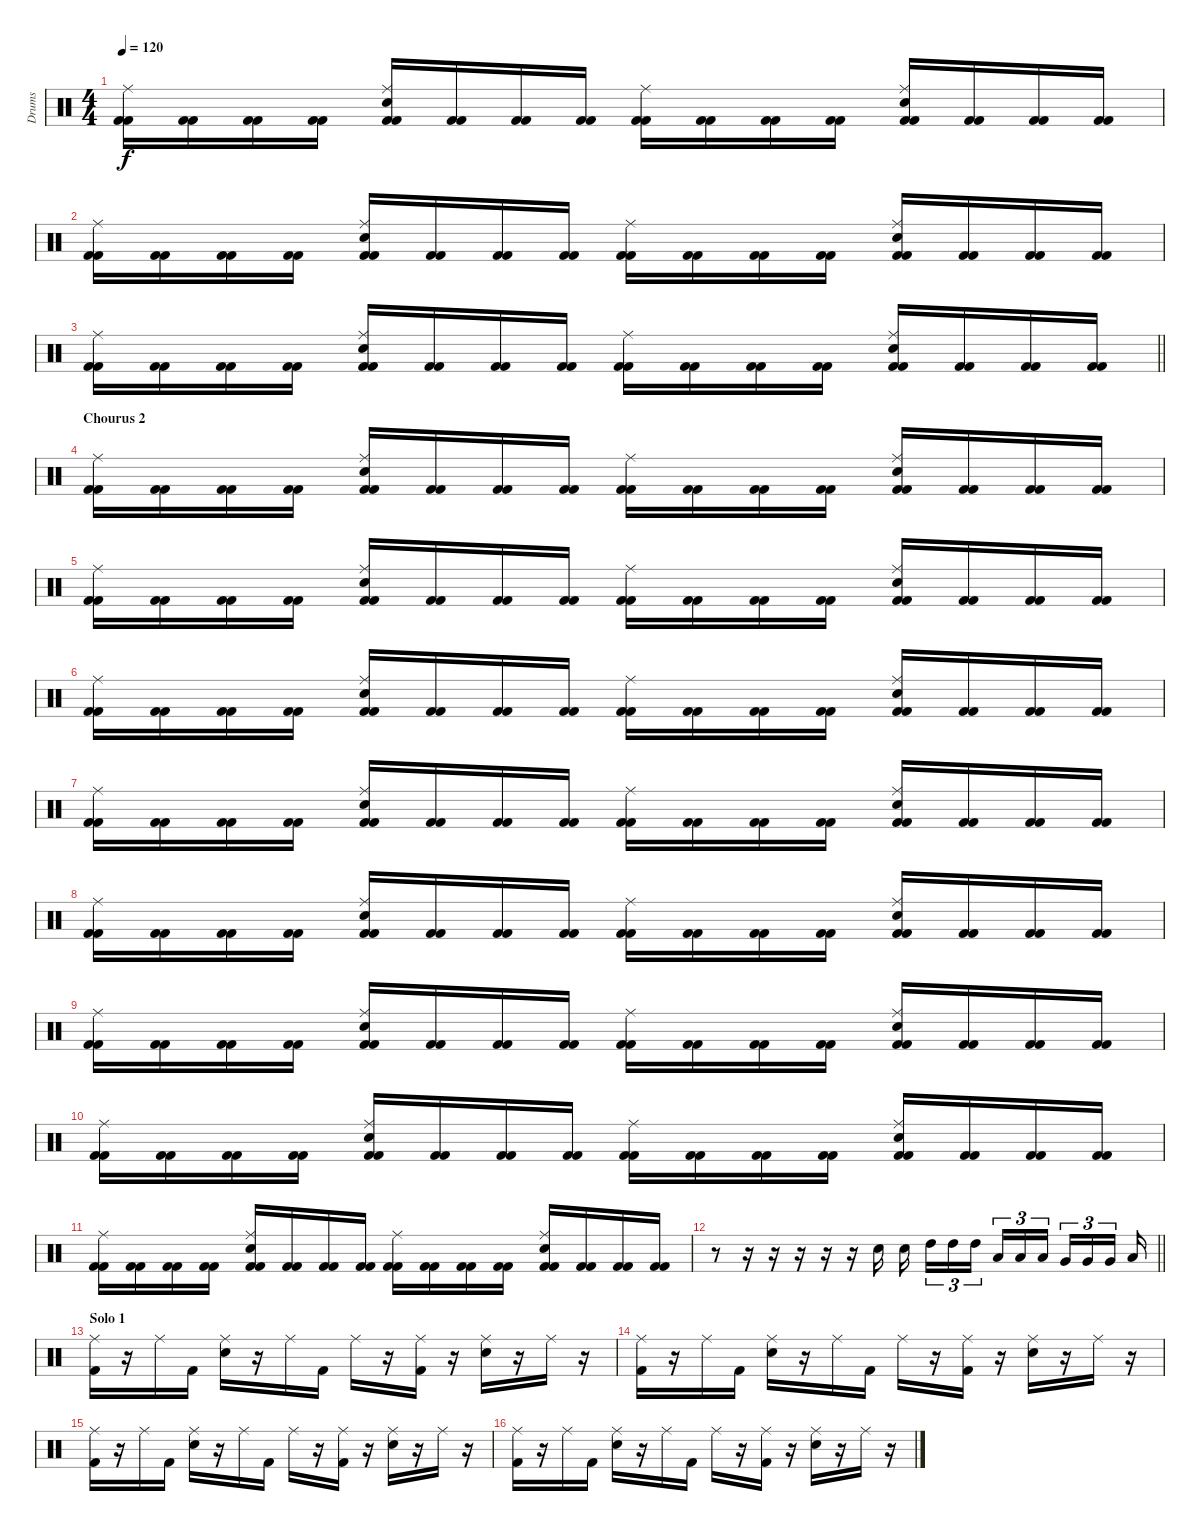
\track ("Drums" "Drums") {instrument percussion}
\staff {score}
\articulation defaults
\ts (4 4)
\tempo 120
\clef neutral
\ks c
("Kick (hit) 2" "Ride (middle)" "Kick (hit) 2").16{dy f} ("Kick (hit) 2" "Kick (hit) 2").16 ("Kick (hit) 2" "Kick (hit) 2").16 ("Kick (hit) 2" "Kick (hit) 2").16 ("Kick (hit) 2" "Ride (middle)" "Electric Snare (hit)" "Kick (hit) 2").16 ("Kick (hit) 2" "Kick (hit) 2").16 ("Kick (hit) 2" "Kick (hit) 2").16 ("Kick (hit) 2" "Kick (hit) 2").16 ("Kick (hit) 2" "Ride (middle)" "Kick (hit) 2").16 ("Kick (hit) 2" "Kick (hit) 2").16 ("Kick (hit) 2" "Kick (hit) 2").16 ("Kick (hit) 2" "Kick (hit) 2").16 ("Kick (hit) 2" "Ride (middle)" "Electric Snare (hit)" "Kick (hit) 2").16 ("Kick (hit) 2" "Kick (hit) 2").16 ("Kick (hit) 2" "Kick (hit) 2").16 ("Kick (hit) 2" "Kick (hit) 2").16 |
("Kick (hit) 2" "Ride (middle)" "Kick (hit) 2").16 ("Kick (hit) 2" "Kick (hit) 2").16 ("Kick (hit) 2" "Kick (hit) 2").16 ("Kick (hit) 2" "Kick (hit) 2").16 ("Kick (hit) 2" "Ride (middle)" "Electric Snare (hit)" "Kick (hit) 2").16 ("Kick (hit) 2" "Kick (hit) 2").16 ("Kick (hit) 2" "Kick (hit) 2").16 ("Kick (hit) 2" "Kick (hit) 2").16 ("Kick (hit) 2" "Ride (middle)" "Kick (hit) 2").16 ("Kick (hit) 2" "Kick (hit) 2").16 ("Kick (hit) 2" "Kick (hit) 2").16 ("Kick (hit) 2" "Kick (hit) 2").16 ("Kick (hit) 2" "Ride (middle)" "Electric Snare (hit)" "Kick (hit) 2").16 ("Kick (hit) 2" "Kick (hit) 2").16 ("Kick (hit) 2" "Kick (hit) 2").16 ("Kick (hit) 2" "Kick (hit) 2").16 |
\barLineRight lightlight
("Kick (hit) 2" "Ride (middle)" "Kick (hit) 2").16 ("Kick (hit) 2" "Kick (hit) 2").16 ("Kick (hit) 2" "Kick (hit) 2").16 ("Kick (hit) 2" "Kick (hit) 2").16 ("Kick (hit) 2" "Ride (middle)" "Electric Snare (hit)" "Kick (hit) 2").16 ("Kick (hit) 2" "Kick (hit) 2").16 ("Kick (hit) 2" "Kick (hit) 2").16 ("Kick (hit) 2" "Kick (hit) 2").16 ("Kick (hit) 2" "Ride (middle)" "Kick (hit) 2").16 ("Kick (hit) 2" "Kick (hit) 2").16 ("Kick (hit) 2" "Kick (hit) 2").16 ("Kick (hit) 2" "Kick (hit) 2").16 ("Kick (hit) 2" "Ride (middle)" "Electric Snare (hit)" "Kick (hit) 2").16 ("Kick (hit) 2" "Kick (hit) 2").16 ("Kick (hit) 2" "Kick (hit) 2").16 ("Kick (hit) 2" "Kick (hit) 2").16 |
\section ("" "Chourus 2")
("Kick (hit) 2" "Ride (middle)" "Kick (hit) 2").16 ("Kick (hit) 2" "Kick (hit) 2").16 ("Kick (hit) 2" "Kick (hit) 2").16 ("Kick (hit) 2" "Kick (hit) 2").16 ("Kick (hit) 2" "Ride (middle)" "Electric Snare (hit)" "Kick (hit) 2").16 ("Kick (hit) 2" "Kick (hit) 2").16 ("Kick (hit) 2" "Kick (hit) 2").16 ("Kick (hit) 2" "Kick (hit) 2").16 ("Kick (hit) 2" "Ride (middle)" "Kick (hit) 2").16 ("Kick (hit) 2" "Kick (hit) 2").16 ("Kick (hit) 2" "Kick (hit) 2").16 ("Kick (hit) 2" "Kick (hit) 2").16 ("Kick (hit) 2" "Ride (middle)" "Electric Snare (hit)" "Kick (hit) 2").16 ("Kick (hit) 2" "Kick (hit) 2").16 ("Kick (hit) 2" "Kick (hit) 2").16 ("Kick (hit) 2" "Kick (hit) 2").16 |
("Kick (hit) 2" "Ride (middle)" "Kick (hit) 2").16 ("Kick (hit) 2" "Kick (hit) 2").16 ("Kick (hit) 2" "Kick (hit) 2").16 ("Kick (hit) 2" "Kick (hit) 2").16 ("Kick (hit) 2" "Ride (middle)" "Electric Snare (hit)" "Kick (hit) 2").16 ("Kick (hit) 2" "Kick (hit) 2").16 ("Kick (hit) 2" "Kick (hit) 2").16 ("Kick (hit) 2" "Kick (hit) 2").16 ("Kick (hit) 2" "Ride (middle)" "Kick (hit) 2").16 ("Kick (hit) 2" "Kick (hit) 2").16 ("Kick (hit) 2" "Kick (hit) 2").16 ("Kick (hit) 2" "Kick (hit) 2").16 ("Kick (hit) 2" "Ride (middle)" "Electric Snare (hit)" "Kick (hit) 2").16 ("Kick (hit) 2" "Kick (hit) 2").16 ("Kick (hit) 2" "Kick (hit) 2").16 ("Kick (hit) 2" "Kick (hit) 2").16 |
("Kick (hit) 2" "Ride (middle)" "Kick (hit) 2").16 ("Kick (hit) 2" "Kick (hit) 2").16 ("Kick (hit) 2" "Kick (hit) 2").16 ("Kick (hit) 2" "Kick (hit) 2").16 ("Kick (hit) 2" "Ride (middle)" "Electric Snare (hit)" "Kick (hit) 2").16 ("Kick (hit) 2" "Kick (hit) 2").16 ("Kick (hit) 2" "Kick (hit) 2").16 ("Kick (hit) 2" "Kick (hit) 2").16 ("Kick (hit) 2" "Ride (middle)" "Kick (hit) 2").16 ("Kick (hit) 2" "Kick (hit) 2").16 ("Kick (hit) 2" "Kick (hit) 2").16 ("Kick (hit) 2" "Kick (hit) 2").16 ("Kick (hit) 2" "Ride (middle)" "Electric Snare (hit)" "Kick (hit) 2").16 ("Kick (hit) 2" "Kick (hit) 2").16 ("Kick (hit) 2" "Kick (hit) 2").16 ("Kick (hit) 2" "Kick (hit) 2").16 |
("Kick (hit) 2" "Ride (middle)" "Kick (hit) 2").16 ("Kick (hit) 2" "Kick (hit) 2").16 ("Kick (hit) 2" "Kick (hit) 2").16 ("Kick (hit) 2" "Kick (hit) 2").16 ("Kick (hit) 2" "Ride (middle)" "Electric Snare (hit)" "Kick (hit) 2").16 ("Kick (hit) 2" "Kick (hit) 2").16 ("Kick (hit) 2" "Kick (hit) 2").16 ("Kick (hit) 2" "Kick (hit) 2").16 ("Kick (hit) 2" "Ride (middle)" "Kick (hit) 2").16 ("Kick (hit) 2" "Kick (hit) 2").16 ("Kick (hit) 2" "Kick (hit) 2").16 ("Kick (hit) 2" "Kick (hit) 2").16 ("Kick (hit) 2" "Ride (middle)" "Electric Snare (hit)" "Kick (hit) 2").16 ("Kick (hit) 2" "Kick (hit) 2").16 ("Kick (hit) 2" "Kick (hit) 2").16 ("Kick (hit) 2" "Kick (hit) 2").16 |
("Kick (hit) 2" "Ride (middle)" "Kick (hit) 2").16 ("Kick (hit) 2" "Kick (hit) 2").16 ("Kick (hit) 2" "Kick (hit) 2").16 ("Kick (hit) 2" "Kick (hit) 2").16 ("Kick (hit) 2" "Ride (middle)" "Electric Snare (hit)" "Kick (hit) 2").16 ("Kick (hit) 2" "Kick (hit) 2").16 ("Kick (hit) 2" "Kick (hit) 2").16 ("Kick (hit) 2" "Kick (hit) 2").16 ("Kick (hit) 2" "Ride (middle)" "Kick (hit) 2").16 ("Kick (hit) 2" "Kick (hit) 2").16 ("Kick (hit) 2" "Kick (hit) 2").16 ("Kick (hit) 2" "Kick (hit) 2").16 ("Kick (hit) 2" "Ride (middle)" "Electric Snare (hit)" "Kick (hit) 2").16 ("Kick (hit) 2" "Kick (hit) 2").16 ("Kick (hit) 2" "Kick (hit) 2").16 ("Kick (hit) 2" "Kick (hit) 2").16 |
("Kick (hit) 2" "Ride (middle)" "Kick (hit) 2").16 ("Kick (hit) 2" "Kick (hit) 2").16 ("Kick (hit) 2" "Kick (hit) 2").16 ("Kick (hit) 2" "Kick (hit) 2").16 ("Kick (hit) 2" "Ride (middle)" "Electric Snare (hit)" "Kick (hit) 2").16 ("Kick (hit) 2" "Kick (hit) 2").16 ("Kick (hit) 2" "Kick (hit) 2").16 ("Kick (hit) 2" "Kick (hit) 2").16 ("Kick (hit) 2" "Ride (middle)" "Kick (hit) 2").16 ("Kick (hit) 2" "Kick (hit) 2").16 ("Kick (hit) 2" "Kick (hit) 2").16 ("Kick (hit) 2" "Kick (hit) 2").16 ("Kick (hit) 2" "Ride (middle)" "Electric Snare (hit)" "Kick (hit) 2").16 ("Kick (hit) 2" "Kick (hit) 2").16 ("Kick (hit) 2" "Kick (hit) 2").16 ("Kick (hit) 2" "Kick (hit) 2").16 |
("Kick (hit) 2" "Ride (middle)" "Kick (hit) 2").16 ("Kick (hit) 2" "Kick (hit) 2").16 ("Kick (hit) 2" "Kick (hit) 2").16 ("Kick (hit) 2" "Kick (hit) 2").16 ("Kick (hit) 2" "Ride (middle)" "Electric Snare (hit)" "Kick (hit) 2").16 ("Kick (hit) 2" "Kick (hit) 2").16 ("Kick (hit) 2" "Kick (hit) 2").16 ("Kick (hit) 2" "Kick (hit) 2").16 ("Kick (hit) 2" "Ride (middle)" "Kick (hit) 2").16 ("Kick (hit) 2" "Kick (hit) 2").16 ("Kick (hit) 2" "Kick (hit) 2").16 ("Kick (hit) 2" "Kick (hit) 2").16 ("Kick (hit) 2" "Ride (middle)" "Electric Snare (hit)" "Kick (hit) 2").16 ("Kick (hit) 2" "Kick (hit) 2").16 ("Kick (hit) 2" "Kick (hit) 2").16 ("Kick (hit) 2" "Kick (hit) 2").16 |
("Kick (hit) 2" "Ride (middle)" "Kick (hit) 2").16 ("Kick (hit) 2" "Kick (hit) 2").16 ("Kick (hit) 2" "Kick (hit) 2").16 ("Kick (hit) 2" "Kick (hit) 2").16 ("Kick (hit) 2" "Ride (middle)" "Electric Snare (hit)" "Kick (hit) 2").16 ("Kick (hit) 2" "Kick (hit) 2").16 ("Kick (hit) 2" "Kick (hit) 2").16 ("Kick (hit) 2" "Kick (hit) 2").16 ("Kick (hit) 2" "Ride (middle)" "Kick (hit) 2").16 ("Kick (hit) 2" "Kick (hit) 2").16 ("Kick (hit) 2" "Kick (hit) 2").16 ("Kick (hit) 2" "Kick (hit) 2").16 ("Kick (hit) 2" "Ride (middle)" "Electric Snare (hit)" "Kick (hit) 2").16 ("Kick (hit) 2" "Kick (hit) 2").16 ("Kick (hit) 2" "Kick (hit) 2").16 ("Kick (hit) 2" "Kick (hit) 2").16 |
\barLineRight lightlight
r.8 r.16 r.16 r.16 r.16 r.16 "Electric Snare (hit)".16 "Electric Snare (hit)".16{beam splitsecondary} "High Tom (hit)".16{tu (3 2)} "High Tom (hit)".16{tu (3 2)} "High Tom (hit)".16{tu (3 2) beam splitsecondary} "Low Tom (hit)".16{tu (3 2)} "Low Tom (hit)".16{tu (3 2)} "Low Tom (hit)".16{tu (3 2) beam splitsecondary} "Very Low Tom (hit)".16{tu (3 2)} "Very Low Tom (hit)".16{tu (3 2)} "Very Low Tom (hit)".16{tu (3 2) beam splitsecondary} "Low Floor Tom (hit)".16 |
\section ("" "Solo 1")
("Ride (middle)" "Kick (hit) 2").16 r.16 "Ride (middle)".16 "Kick (hit) 2".16 ("Ride (middle)" "Electric Snare (hit)").16 r.16 "Ride (middle)".16 "Kick (hit) 2".16 "Ride (middle)".16 r.16 ("Ride (middle)" "Kick (hit) 2").16 r.16 ("Ride (middle)" "Electric Snare (hit)").16 r.16 "Ride (middle)".16 r.16 |
("Ride (middle)" "Kick (hit) 2").16 r.16 "Ride (middle)".16 "Kick (hit) 2".16 ("Ride (middle)" "Electric Snare (hit)").16 r.16 "Ride (middle)".16 "Kick (hit) 2".16 "Ride (middle)".16 r.16 ("Ride (middle)" "Kick (hit) 2").16 r.16 ("Ride (middle)" "Electric Snare (hit)").16 r.16 "Ride (middle)".16 r.16 |
("Ride (middle)" "Kick (hit) 2").16 r.16 "Ride (middle)".16 "Kick (hit) 2".16 ("Ride (middle)" "Electric Snare (hit)").16 r.16 "Ride (middle)".16 "Kick (hit) 2".16 "Ride (middle)".16 r.16 ("Ride (middle)" "Kick (hit) 2").16 r.16 ("Ride (middle)" "Electric Snare (hit)").16 r.16 "Ride (middle)".16 r.16 |
("Ride (middle)" "Kick (hit) 2").16 r.16 "Ride (middle)".16 "Kick (hit) 2".16 ("Ride (middle)" "Electric Snare (hit)").16 r.16 "Ride (middle)".16 "Kick (hit) 2".16 "Ride (middle)".16 r.16 ("Ride (middle)" "Kick (hit) 2").16 r.16 ("Ride (middle)" "Electric Snare (hit)").16 r.16 "Ride (middle)".16 r.16
